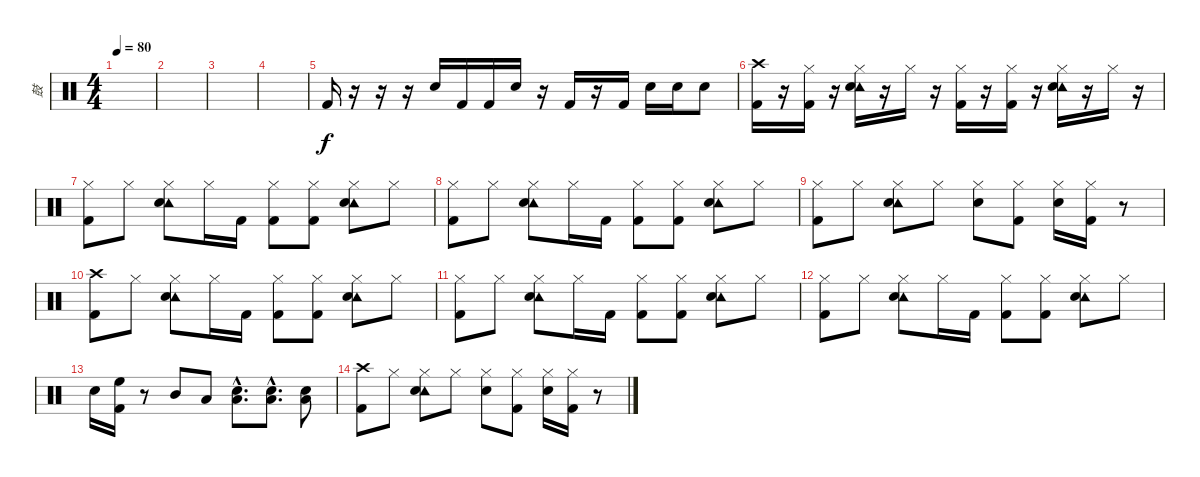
\track ("鼓" "鼓") {instrument percussion}
\staff {score}
\articulation defaults
\ts (4 4)
\tempo 80
\clef neutral
\ks c
|
|
|
|
"Kick (hit) 2".16 r.16 r.16 r.16 "Electric Snare (hit)".16 "Kick (hit) 2".16 "Kick (hit) 2".16 "Electric Snare (hit)".16 r.16 "Kick (hit) 2".16 r.16 "Kick (hit) 2".16 "Electric Snare (hit)".16 "Electric Snare (hit)".16 "Electric Snare (hit)".8 |
("Crash high (hit)" "Kick (hit) 2").16 r.16 ("Hi-Hat (closed)" "Kick (hit) 2").16 r.16 ("Hi-Hat (closed)" "Tambourine (hit)" "Electric Snare (hit)").16 r.16 "Hi-Hat (closed)".16 r.16 ("Hi-Hat (closed)" "Kick (hit) 2").16 r.16 ("Hi-Hat (closed)" "Kick (hit) 2").16 r.16 ("Hi-Hat (closed)" "Tambourine (hit)" "Electric Snare (hit)").16 r.16 "Hi-Hat (closed)".16 r.16 |
("Hi-Hat (closed)" "Kick (hit) 2").8 "Hi-Hat (closed)".8 ("Hi-Hat (closed)" "Tambourine (hit)" "Electric Snare (hit)").8 "Hi-Hat (closed)".16 "Kick (hit) 2".16 ("Hi-Hat (closed)" "Kick (hit) 2").8 ("Hi-Hat (closed)" "Kick (hit) 2").8 ("Hi-Hat (closed)" "Tambourine (hit)" "Electric Snare (hit)").8 "Hi-Hat (closed)".8 |
("Hi-Hat (closed)" "Kick (hit) 2").8 "Hi-Hat (closed)".8 ("Hi-Hat (closed)" "Tambourine (hit)" "Electric Snare (hit)").8 "Hi-Hat (closed)".16 "Kick (hit) 2".16 ("Hi-Hat (closed)" "Kick (hit) 2").8 ("Hi-Hat (closed)" "Kick (hit) 2").8 ("Hi-Hat (closed)" "Tambourine (hit)" "Electric Snare (hit)").8 "Hi-Hat (closed)".8 |
("Hi-Hat (closed)" "Kick (hit) 2").8 "Hi-Hat (closed)".8 ("Hi-Hat (closed)" "Tambourine (hit)" "Electric Snare (hit)").8 "Hi-Hat (closed)".8 ("Hi-Hat (closed)" "Electric Snare (hit)").8 ("Hi-Hat (closed)" "Kick (hit) 2").8 ("Hi-Hat (closed)" "Electric Snare (hit)").16 ("Hi-Hat (closed)" "Kick (hit) 2").16 r.8 |
("Crash high (hit)" "Kick (hit) 2").8 "Hi-Hat (closed)".8 ("Hi-Hat (closed)" "Tambourine (hit)" "Electric Snare (hit)").8 "Hi-Hat (closed)".16 "Kick (hit) 2".16 ("Hi-Hat (closed)" "Kick (hit) 2").8 ("Hi-Hat (closed)" "Kick (hit) 2").8 ("Hi-Hat (closed)" "Tambourine (hit)" "Electric Snare (hit)").8 "Hi-Hat (closed)".8 |
("Hi-Hat (closed)" "Kick (hit) 2").8 "Hi-Hat (closed)".8 ("Hi-Hat (closed)" "Tambourine (hit)" "Electric Snare (hit)").8 "Hi-Hat (closed)".16 "Kick (hit) 2".16 ("Hi-Hat (closed)" "Kick (hit) 2").8 ("Hi-Hat (closed)" "Kick (hit) 2").8 ("Hi-Hat (closed)" "Tambourine (hit)" "Electric Snare (hit)").8 "Hi-Hat (closed)".8 |
("Hi-Hat (closed)" "Kick (hit) 2").8 "Hi-Hat (closed)".8 ("Hi-Hat (closed)" "Tambourine (hit)" "Electric Snare (hit)").8 "Hi-Hat (closed)".16 "Kick (hit) 2".16 ("Hi-Hat (closed)" "Kick (hit) 2").8 ("Hi-Hat (closed)" "Kick (hit) 2").8 ("Hi-Hat (closed)" "Tambourine (hit)" "Electric Snare (hit)").8 "Hi-Hat (closed)".8 |
"Electric Snare (hit)".16 ("High Floor Tom (hit)" "Kick (hit) 2").16 r.8 "Mid Tom (hit)".8 "Low Tom (hit)".8 ("Low Floor Tom (hit)"{hac} "Electric Snare (hit)"{hac}).8{d} ("Low Floor Tom (hit)"{hac} "Electric Snare (hit)"{hac}).8{d} ("Low Floor Tom (hit)" "Electric Snare (hit)").8 |
("Crash high (hit)" "Kick (hit) 2").8 "Hi-Hat (closed)".8 ("Hi-Hat (closed)" "Tambourine (hit)" "Electric Snare (hit)").8 "Hi-Hat (closed)".8 ("Hi-Hat (closed)" "Electric Snare (hit)").8 ("Hi-Hat (closed)" "Kick (hit) 2").8 ("Hi-Hat (closed)" "Electric Snare (hit)").16 ("Hi-Hat (closed)" "Kick (hit) 2").16 r.8
